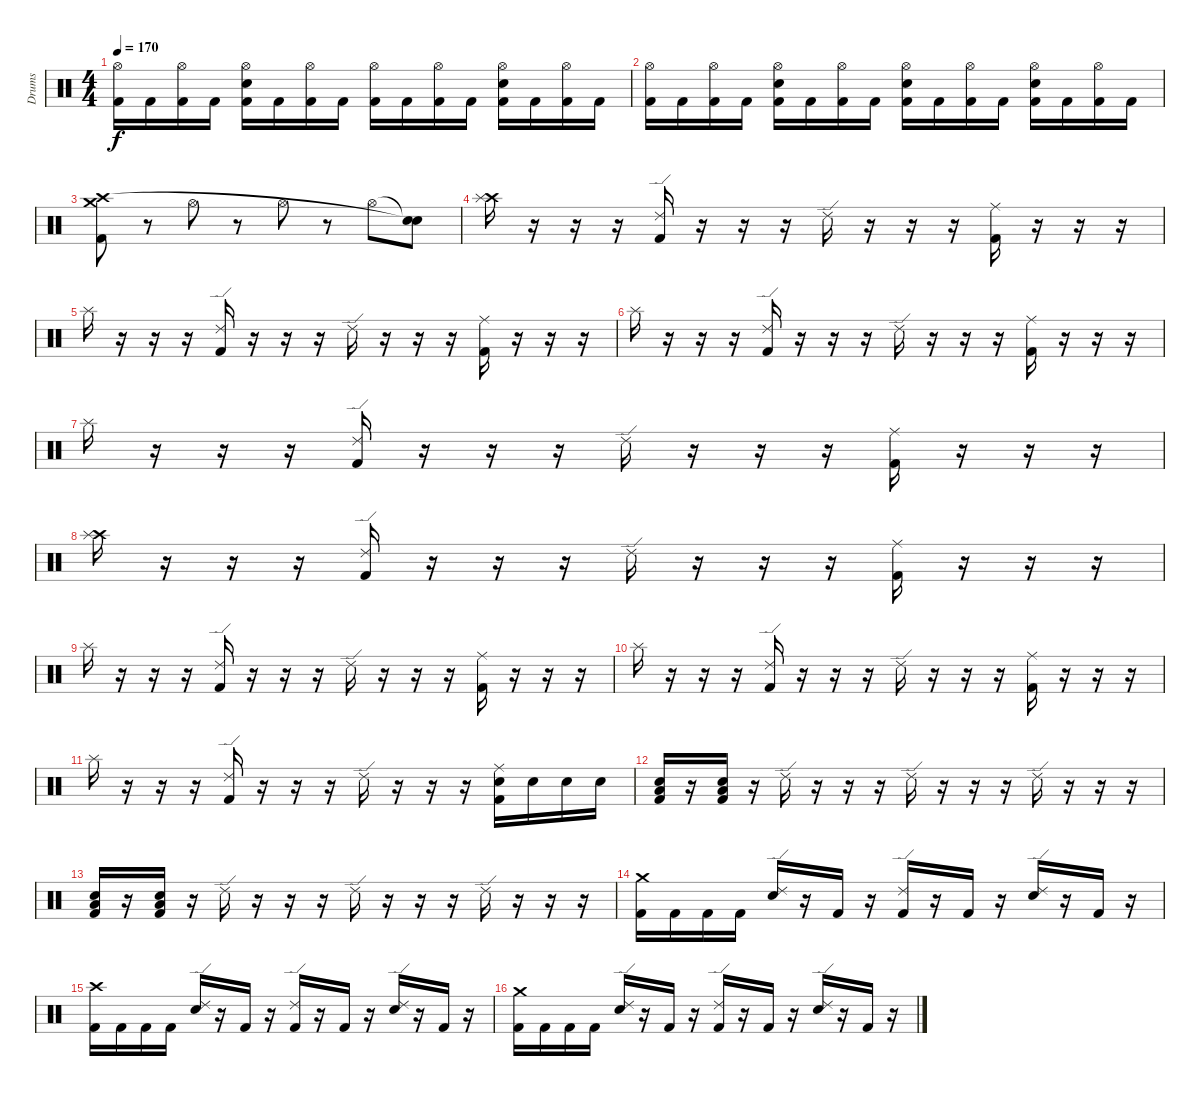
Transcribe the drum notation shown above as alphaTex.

\track ("Drums" "Drums") {instrument percussion}
\staff {score}
\articulation defaults
\ts (4 4)
\tempo 170
\clef neutral
\ks c
("Hi-Hat (open)" "Kick (hit) 2").16{dy f} "Kick (hit) 2".16 ("Hi-Hat (open)" "Kick (hit) 2").16 "Kick (hit) 2".16 ("Hi-Hat (open)" "Electric Snare (hit)" "Kick (hit) 2").16 "Kick (hit) 2".16 ("Hi-Hat (open)" "Kick (hit) 2").16 "Kick (hit) 2".16 ("Hi-Hat (open)" "Kick (hit) 2").16 "Kick (hit) 2".16 ("Hi-Hat (open)" "Kick (hit) 2").16 "Kick (hit) 2".16 ("Hi-Hat (open)" "Electric Snare (hit)" "Kick (hit) 2").16 "Kick (hit) 2".16 ("Hi-Hat (open)" "Kick (hit) 2").16 "Kick (hit) 2".16 |
("Hi-Hat (open)" "Kick (hit) 2").16 "Kick (hit) 2".16 ("Hi-Hat (open)" "Kick (hit) 2").16 "Kick (hit) 2".16 ("Hi-Hat (open)" "Electric Snare (hit)" "Kick (hit) 2").16 "Kick (hit) 2".16 ("Hi-Hat (open)" "Kick (hit) 2").16 "Kick (hit) 2".16 ("Hi-Hat (open)" "Electric Snare (hit)" "Kick (hit) 2").16 "Kick (hit) 2".16 ("Hi-Hat (open)" "Kick (hit) 2").16 "Kick (hit) 2".16 ("Hi-Hat (open)" "Electric Snare (hit)" "Kick (hit) 2").16 "Kick (hit) 2".16 ("Hi-Hat (open)" "Kick (hit) 2").16 "Kick (hit) 2".16 |
("Crash medium (hit)" "Crash high (hit)" "Kick (hit) 2").8 r.8 "Hi-Hat (open)".8 r.8 "Hi-Hat (open)".8 r.8 "Hi-Hat (open)".8 ("Snare (hit)"{t} "Snare (hit)"{t}).8 |
("Crash high (hit)" "Splash (hit)").16 r.16 r.16 r.16 ("Ride (edge) 2" "Kick (hit) 2").16 r.16 r.16 r.16 "Ride (edge) 2".16 r.16 r.16 r.16 ("Ride (middle)" "Kick (hit) 2").16 r.16 r.16 r.16 |
"Splash (hit)".16 r.16 r.16 r.16 ("Ride (edge) 2" "Kick (hit) 2").16 r.16 r.16 r.16 "Ride (edge) 2".16 r.16 r.16 r.16 ("Ride (middle)" "Kick (hit) 2").16 r.16 r.16 r.16 |
"Splash (hit)".16 r.16 r.16 r.16 ("Ride (edge) 2" "Kick (hit) 2").16 r.16 r.16 r.16 "Ride (edge) 2".16 r.16 r.16 r.16 ("Ride (middle)" "Kick (hit) 2").16 r.16 r.16 r.16 |
"Splash (hit)".16 r.16 r.16 r.16 ("Ride (edge) 2" "Kick (hit) 2").16 r.16 r.16 r.16 "Ride (edge) 2".16 r.16 r.16 r.16 ("Ride (middle)" "Kick (hit) 2").16 r.16 r.16 r.16 |
("Crash high (hit)" "Splash (hit)").16 r.16 r.16 r.16 ("Ride (edge) 2" "Kick (hit) 2").16 r.16 r.16 r.16 "Ride (edge) 2".16 r.16 r.16 r.16 ("Ride (middle)" "Kick (hit) 2").16 r.16 r.16 r.16 |
"Splash (hit)".16 r.16 r.16 r.16 ("Ride (edge) 2" "Kick (hit) 2").16 r.16 r.16 r.16 "Ride (edge) 2".16 r.16 r.16 r.16 ("Ride (middle)" "Kick (hit) 2").16 r.16 r.16 r.16 |
"Splash (hit)".16 r.16 r.16 r.16 ("Ride (edge) 2" "Kick (hit) 2").16 r.16 r.16 r.16 "Ride (edge) 2".16 r.16 r.16 r.16 ("Ride (middle)" "Kick (hit) 2").16 r.16 r.16 r.16 |
"Splash (hit)".16 r.16 r.16 r.16 ("Ride (edge) 2" "Kick (hit) 2").16 r.16 r.16 r.16 "Ride (edge) 2".16 r.16 r.16 r.16 ("Ride (middle)" "Electric Snare (hit)" "Kick (hit) 2").16 "Electric Snare (hit)".16 "Electric Snare (hit)".16 "Electric Snare (hit)".16 |
("Low Floor Tom (hit)" "Electric Snare (hit)" "Kick (hit) 2").16 r.16 ("Low Floor Tom (hit)" "Electric Snare (hit)" "Kick (hit) 2").16 r.16 "Ride (edge) 2".16 r.16 r.16 r.16 "Ride (edge) 2".16 r.16 r.16 r.16 "Ride (edge) 2".16 r.16 r.16 r.16 |
("Low Floor Tom (hit)" "Electric Snare (hit)" "Kick (hit) 2").16 r.16 ("Low Floor Tom (hit)" "Electric Snare (hit)" "Kick (hit) 2").16 r.16 "Ride (edge) 2".16 r.16 r.16 r.16 "Ride (edge) 2".16 r.16 r.16 r.16 "Ride (edge) 2".16 r.16 r.16 r.16 |
("Crash medium (hit)" "Kick (hit) 2").16 "Kick (hit) 2".16 "Kick (hit) 2".16 "Kick (hit) 2".16 ("Ride (edge) 2" "Electric Snare (hit)").16 r.16 "Kick (hit) 2".16 r.16 ("Ride (edge) 2" "Kick (hit) 2").16 r.16 "Kick (hit) 2".16 r.16 ("Ride (edge) 2" "Electric Snare (hit)").16 r.16 "Kick (hit) 2".16 r.16 |
("Crash high (hit)" "Kick (hit) 2").16 "Kick (hit) 2".16 "Kick (hit) 2".16 "Kick (hit) 2".16 ("Ride (edge) 2" "Electric Snare (hit)").16 r.16 "Kick (hit) 2".16 r.16 ("Ride (edge) 2" "Kick (hit) 2").16 r.16 "Kick (hit) 2".16 r.16 ("Ride (edge) 2" "Electric Snare (hit)").16 r.16 "Kick (hit) 2".16 r.16 |
("Crash medium (hit)" "Kick (hit) 2").16 "Kick (hit) 2".16 "Kick (hit) 2".16 "Kick (hit) 2".16 ("Ride (edge) 2" "Electric Snare (hit)").16 r.16 "Kick (hit) 2".16 r.16 ("Ride (edge) 2" "Kick (hit) 2").16 r.16 "Kick (hit) 2".16 r.16 ("Ride (edge) 2" "Electric Snare (hit)").16 r.16 "Kick (hit) 2".16 r.16
